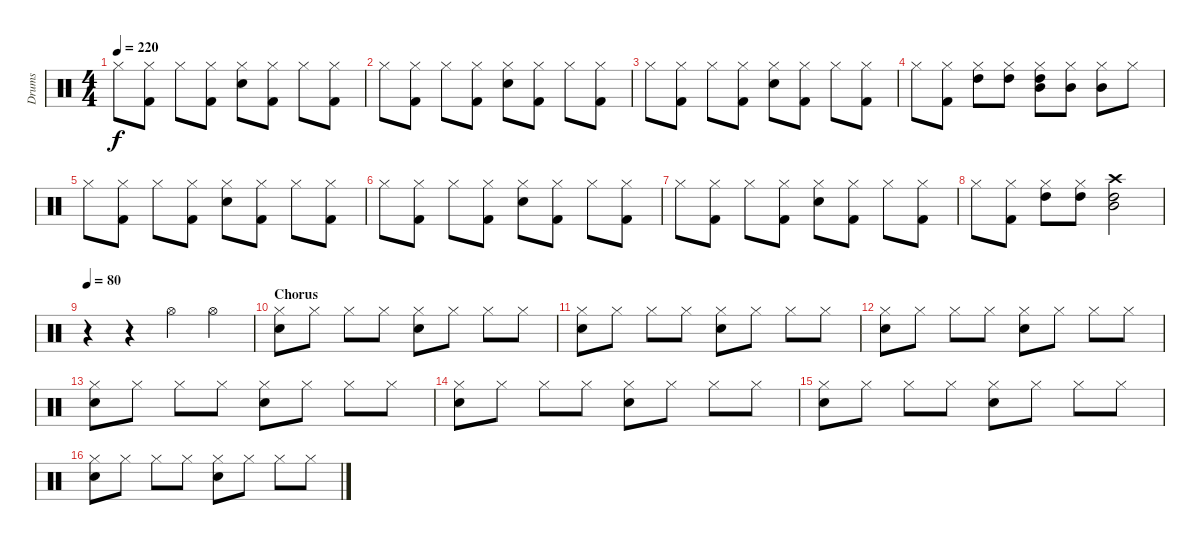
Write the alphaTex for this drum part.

\track ("Drums" "Drums") {instrument percussion}
\staff {score}
\articulation defaults
\ts (4 4)
\tempo 220
\clef neutral
\ks c "Hi-Hat (closed)".8{dy f}
("Hi-Hat (closed)" "Kick (hit) 2").8 "Hi-Hat (closed)".8 ("Hi-Hat (closed)" "Kick (hit) 2").8 ("Hi-Hat (closed)" "Snare (hit) 2").8 ("Hi-Hat (closed)" "Kick (hit) 2").8 "Hi-Hat (closed)".8 ("Hi-Hat (closed)" "Kick (hit) 2").8 |
"Hi-Hat (closed)".8 ("Hi-Hat (closed)" "Kick (hit) 2").8 "Hi-Hat (closed)".8 ("Hi-Hat (closed)" "Kick (hit) 2").8 ("Hi-Hat (closed)" "Snare (hit) 2").8 ("Hi-Hat (closed)" "Kick (hit) 2").8 "Hi-Hat (closed)".8 ("Hi-Hat (closed)" "Kick (hit) 2").8 |
"Hi-Hat (closed)".8 ("Hi-Hat (closed)" "Kick (hit) 2").8 "Hi-Hat (closed)".8 ("Hi-Hat (closed)" "Kick (hit) 2").8 ("Hi-Hat (closed)" "Snare (hit) 2").8 ("Hi-Hat (closed)" "Kick (hit) 2").8 "Hi-Hat (closed)".8 ("Hi-Hat (closed)" "Kick (hit) 2").8 |
"Hi-Hat (closed)".8 ("Hi-Hat (closed)" "Kick (hit) 2").8 ("Hi-Hat (closed)" "High Tom (hit)").8 ("Hi-Hat (closed)" "High Tom (hit)").8 ("Hi-Hat (closed)" "High Tom (hit)" "Mid Tom (hit)").8 ("Hi-Hat (closed)" "Mid Tom (hit)").8 ("Hi-Hat (closed)" "Mid Tom (hit)").8 "Hi-Hat (closed)".8 |
"Hi-Hat (closed)".8 ("Hi-Hat (closed)" "Kick (hit) 2").8 "Hi-Hat (closed)".8 ("Hi-Hat (closed)" "Kick (hit) 2").8 ("Hi-Hat (closed)" "Snare (hit) 2").8 ("Hi-Hat (closed)" "Kick (hit) 2").8 "Hi-Hat (closed)".8 ("Hi-Hat (closed)" "Kick (hit) 2").8 |
"Hi-Hat (closed)".8 ("Hi-Hat (closed)" "Kick (hit) 2").8 "Hi-Hat (closed)".8 ("Hi-Hat (closed)" "Kick (hit) 2").8 ("Hi-Hat (closed)" "Snare (hit) 2").8 ("Hi-Hat (closed)" "Kick (hit) 2").8 "Hi-Hat (closed)".8 ("Hi-Hat (closed)" "Kick (hit) 2").8 |
"Hi-Hat (closed)".8 ("Hi-Hat (closed)" "Kick (hit) 2").8 "Hi-Hat (closed)".8 ("Hi-Hat (closed)" "Kick (hit) 2").8 ("Hi-Hat (closed)" "Snare (hit) 2").8 ("Hi-Hat (closed)" "Kick (hit) 2").8 "Hi-Hat (closed)".8 ("Hi-Hat (closed)" "Kick (hit) 2").8 |
"Hi-Hat (closed)".8 ("Hi-Hat (closed)" "Kick (hit) 2").8 ("Hi-Hat (closed)" "High Tom (hit)").8 ("Hi-Hat (closed)" "High Tom (hit)").8 ("Crash high (hit)" "High Tom (hit)" "Mid Tom (hit)").2 |
\tempo 80
r.4 r.4 "Hi-Hat (open)".4 "Hi-Hat (open)".4 |
\section ("" "Chorus")
("Hi-Hat (closed)" "Snare (hit) 2").8 "Hi-Hat (closed)".8 "Hi-Hat (closed)".8 "Hi-Hat (closed)".8 ("Hi-Hat (closed)" "Snare (hit) 2").8 "Hi-Hat (closed)".8 "Hi-Hat (closed)".8 "Hi-Hat (closed)".8 |
("Hi-Hat (closed)" "Snare (hit) 2").8 "Hi-Hat (closed)".8 "Hi-Hat (closed)".8 "Hi-Hat (closed)".8 ("Hi-Hat (closed)" "Snare (hit) 2").8 "Hi-Hat (closed)".8 "Hi-Hat (closed)".8 "Hi-Hat (closed)".8 |
("Hi-Hat (closed)" "Snare (hit) 2").8 "Hi-Hat (closed)".8 "Hi-Hat (closed)".8 "Hi-Hat (closed)".8 ("Hi-Hat (closed)" "Snare (hit) 2").8 "Hi-Hat (closed)".8 "Hi-Hat (closed)".8 "Hi-Hat (closed)".8 |
("Hi-Hat (closed)" "Snare (hit) 2").8 "Hi-Hat (closed)".8 "Hi-Hat (closed)".8 "Hi-Hat (closed)".8 ("Hi-Hat (closed)" "Snare (hit) 2").8 "Hi-Hat (closed)".8 "Hi-Hat (closed)".8 "Hi-Hat (closed)".8 |
("Hi-Hat (closed)" "Snare (hit) 2").8 "Hi-Hat (closed)".8 "Hi-Hat (closed)".8 "Hi-Hat (closed)".8 ("Hi-Hat (closed)" "Snare (hit) 2").8 "Hi-Hat (closed)".8 "Hi-Hat (closed)".8 "Hi-Hat (closed)".8 |
("Hi-Hat (closed)" "Snare (hit) 2").8 "Hi-Hat (closed)".8 "Hi-Hat (closed)".8 "Hi-Hat (closed)".8 ("Hi-Hat (closed)" "Snare (hit) 2").8 "Hi-Hat (closed)".8 "Hi-Hat (closed)".8 "Hi-Hat (closed)".8 |
("Hi-Hat (closed)" "Snare (hit) 2").8 "Hi-Hat (closed)".8 "Hi-Hat (closed)".8 "Hi-Hat (closed)".8 ("Hi-Hat (closed)" "Snare (hit) 2").8 "Hi-Hat (closed)".8 "Hi-Hat (closed)".8 "Hi-Hat (closed)".8
